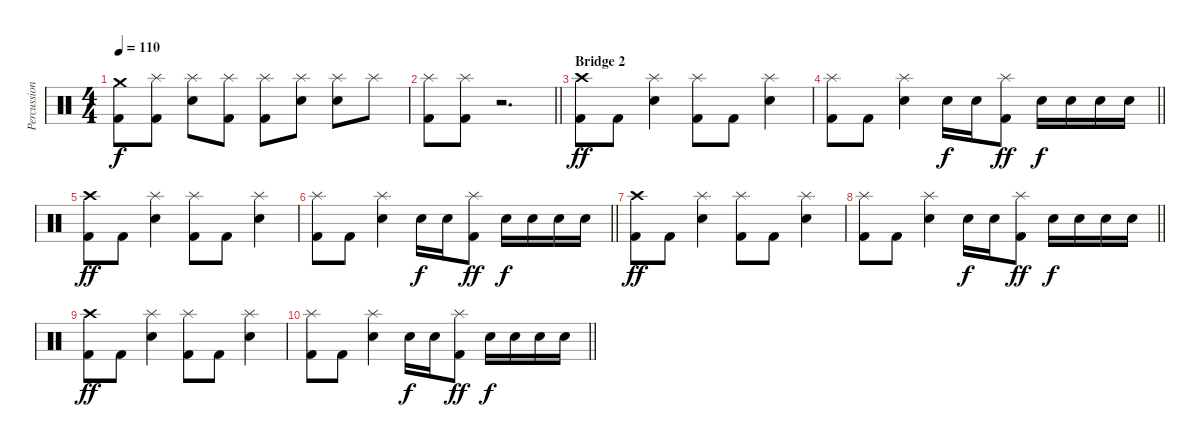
\track ("Percussion" "Percussion") {instrument percussion}
\staff {score}
\articulation defaults
\ts (4 4)
\tempo 110
\clef neutral
\ks c
("Crash medium (hit)" "Kick (hit) 2").8{dy f} ("Splash (hit)" "Kick (hit) 2").8 ("Splash (hit)" "Snare (hit) 2").8 ("Splash (hit)" "Kick (hit) 2").8 ("Splash (hit)" "Kick (hit) 2").8 ("Splash (hit)" "Snare (hit) 2").8 ("Splash (hit)" "Snare (hit) 2").8 "Splash (hit)".8 |
\barLineRight lightlight
("Splash (hit)" "Kick (hit) 2").8 ("Splash (hit)" "Kick (hit) 2").8 r.2{d} |
\section ("" "Bridge 2")
("Crash high (hit)" "Kick (hit) 2").8{dy ff} "Kick (hit) 2".8 ("Splash (hit)" "Snare (hit) 2").4 ("Splash (hit)" "Kick (hit) 2").8 "Kick (hit) 2".8 ("Splash (hit)" "Snare (hit) 2").4 |
\barLineRight lightlight
("Splash (hit)" "Kick (hit) 2").8 "Kick (hit) 2".8 ("Splash (hit)" "Snare (hit) 2").4 "Snare (hit) 2".16{dy f} "Snare (hit) 2".16 ("Splash (hit)" "Kick (hit) 2").8{dy ff} "Snare (hit) 2".16{dy f} "Snare (hit) 2".16 "Snare (hit) 2".16 "Snare (hit) 2".16 |
("Crash high (hit)" "Kick (hit) 2").8{dy ff} "Kick (hit) 2".8 ("Splash (hit)" "Snare (hit) 2").4 ("Splash (hit)" "Kick (hit) 2").8 "Kick (hit) 2".8 ("Splash (hit)" "Snare (hit) 2").4 |
\barLineRight lightlight
("Splash (hit)" "Kick (hit) 2").8 "Kick (hit) 2".8 ("Splash (hit)" "Snare (hit) 2").4 "Snare (hit) 2".16{dy f} "Snare (hit) 2".16 ("Splash (hit)" "Kick (hit) 2").8{dy ff} "Snare (hit) 2".16{dy f} "Snare (hit) 2".16 "Snare (hit) 2".16 "Snare (hit) 2".16 |
("Crash high (hit)" "Kick (hit) 2").8{dy ff} "Kick (hit) 2".8 ("Splash (hit)" "Snare (hit) 2").4 ("Splash (hit)" "Kick (hit) 2").8 "Kick (hit) 2".8 ("Splash (hit)" "Snare (hit) 2").4 |
\barLineRight lightlight
("Splash (hit)" "Kick (hit) 2").8 "Kick (hit) 2".8 ("Splash (hit)" "Snare (hit) 2").4 "Snare (hit) 2".16{dy f} "Snare (hit) 2".16 ("Splash (hit)" "Kick (hit) 2").8{dy ff} "Snare (hit) 2".16{dy f} "Snare (hit) 2".16 "Snare (hit) 2".16 "Snare (hit) 2".16 |
("Crash high (hit)" "Kick (hit) 2").8{dy ff} "Kick (hit) 2".8 ("Splash (hit)" "Snare (hit) 2").4 ("Splash (hit)" "Kick (hit) 2").8 "Kick (hit) 2".8 ("Splash (hit)" "Snare (hit) 2").4 |
\barLineRight lightlight
("Splash (hit)" "Kick (hit) 2").8 "Kick (hit) 2".8 ("Splash (hit)" "Snare (hit) 2").4 "Snare (hit) 2".16{dy f} "Snare (hit) 2".16 ("Splash (hit)" "Kick (hit) 2").8{dy ff} "Snare (hit) 2".16{dy f} "Snare (hit) 2".16 "Snare (hit) 2".16 "Snare (hit) 2".16
